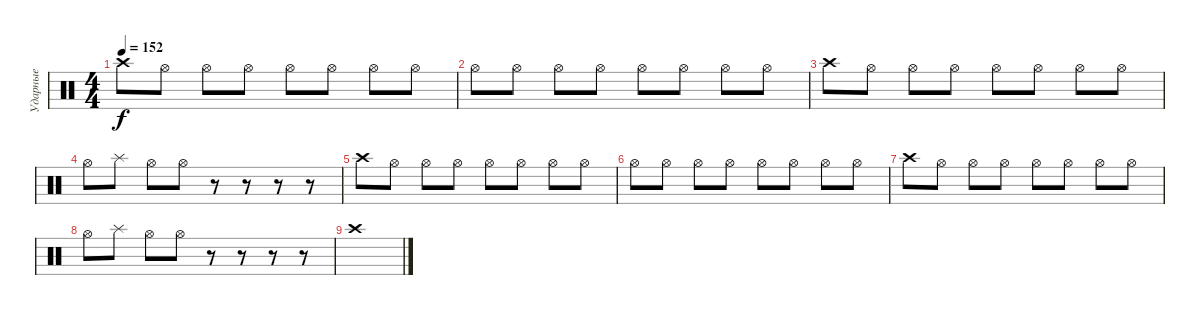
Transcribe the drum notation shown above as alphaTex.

\track ("Ударные" "Ударные") {instrument percussion}
\staff {score}
\articulation defaults
\ts (4 4)
\tempo 152
\clef neutral
\ks c "Crash high (hit)".8{dy f} "Hi-Hat (open)".8 "Hi-Hat (open)".8 "Hi-Hat (open)".8 "Hi-Hat (open)".8 "Hi-Hat (open)".8 "Hi-Hat (open)".8 "Hi-Hat (open)".8
|
"Hi-Hat (open)".8 "Hi-Hat (open)".8 "Hi-Hat (open)".8 "Hi-Hat (open)".8 "Hi-Hat (open)".8 "Hi-Hat (open)".8 "Hi-Hat (open)".8 "Hi-Hat (open)".8 |
"Crash high (hit)".8 "Hi-Hat (open)".8 "Hi-Hat (open)".8 "Hi-Hat (open)".8 "Hi-Hat (open)".8 "Hi-Hat (open)".8 "Hi-Hat (open)".8 "Hi-Hat (open)".8 |
"Hi-Hat (open)".8 "Splash (hit)".8 "Hi-Hat (open)".8 "Hi-Hat (open)".8 r.8 r.8 r.8 r.8 |
"Crash high (hit)".8 "Hi-Hat (open)".8 "Hi-Hat (open)".8 "Hi-Hat (open)".8 "Hi-Hat (open)".8 "Hi-Hat (open)".8 "Hi-Hat (open)".8 "Hi-Hat (open)".8 |
"Hi-Hat (open)".8 "Hi-Hat (open)".8 "Hi-Hat (open)".8 "Hi-Hat (open)".8 "Hi-Hat (open)".8 "Hi-Hat (open)".8 "Hi-Hat (open)".8 "Hi-Hat (open)".8 |
"Crash high (hit)".8 "Hi-Hat (open)".8 "Hi-Hat (open)".8 "Hi-Hat (open)".8 "Hi-Hat (open)".8 "Hi-Hat (open)".8 "Hi-Hat (open)".8 "Hi-Hat (open)".8 |
"Hi-Hat (open)".8 "Splash (hit)".8 "Hi-Hat (open)".8 "Hi-Hat (open)".8 r.8 r.8 r.8 r.8 |
"Crash high (hit)".1
